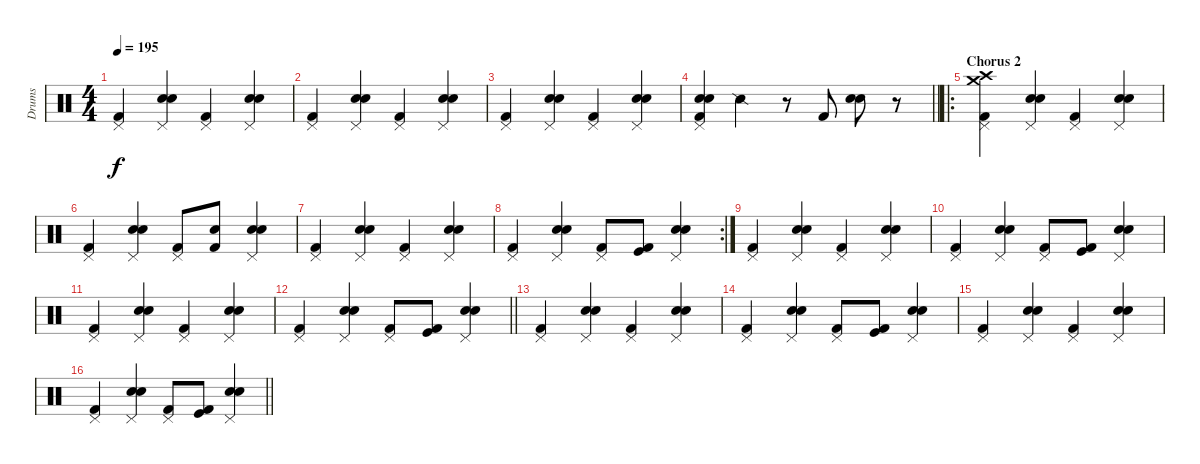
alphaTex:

\track ("Drums" "Drums") {instrument percussion}
\staff {score}
\articulation defaults
\ts (4 4)
\tempo 195
\clef neutral
\ks c
("Kick (hit) 2" "Pedal Hi-Hat (hit)").4{dy f} ("Snare (hit) 2" "Electric Snare (hit)" "Pedal Hi-Hat (hit)").4 ("Kick (hit) 2" "Pedal Hi-Hat (hit)").4 ("Snare (hit) 2" "Electric Snare (hit)" "Pedal Hi-Hat (hit)").4 |
("Kick (hit) 2" "Pedal Hi-Hat (hit)").4 ("Snare (hit) 2" "Electric Snare (hit)" "Pedal Hi-Hat (hit)").4 ("Kick (hit) 2" "Pedal Hi-Hat (hit)").4 ("Snare (hit) 2" "Electric Snare (hit)" "Pedal Hi-Hat (hit)").4 |
("Kick (hit) 2" "Pedal Hi-Hat (hit)").4 ("Snare (hit) 2" "Electric Snare (hit)" "Pedal Hi-Hat (hit)").4 ("Kick (hit) 2" "Pedal Hi-Hat (hit)").4 ("Snare (hit) 2" "Electric Snare (hit)" "Pedal Hi-Hat (hit)").4 |
\barLineRight lightlight
("Kick (hit) 2" "Electric Snare (hit)" "Snare (hit) 2" "Pedal Hi-Hat (hit)").4 "Snare (side stick) 2".4 r.8 "Kick (hit) 2".8 ("Snare (hit) 2" "Electric Snare (hit)").8 r.8 |
\ro
\section ("" "Chorus 2")
("Kick (hit) 2" "Pedal Hi-Hat (hit)" "Crash medium (hit)" "Crash high (hit)").4 ("Snare (hit) 2" "Electric Snare (hit)" "Pedal Hi-Hat (hit)").4 ("Kick (hit) 2" "Pedal Hi-Hat (hit)").4 ("Snare (hit) 2" "Electric Snare (hit)" "Pedal Hi-Hat (hit)").4 |
("Kick (hit) 2" "Pedal Hi-Hat (hit)").4 ("Snare (hit) 2" "Electric Snare (hit)" "Pedal Hi-Hat (hit)").4 ("Kick (hit) 2" "Pedal Hi-Hat (hit)").8 ("Kick (hit) 2" "Electric Snare (hit)").8 ("Snare (hit) 2" "Electric Snare (hit)" "Pedal Hi-Hat (hit)").4 |
("Kick (hit) 2" "Pedal Hi-Hat (hit)").4 ("Snare (hit) 2" "Electric Snare (hit)" "Pedal Hi-Hat (hit)").4 ("Kick (hit) 2" "Pedal Hi-Hat (hit)").4 ("Snare (hit) 2" "Electric Snare (hit)" "Pedal Hi-Hat (hit)").4 |
\rc 2
("Kick (hit) 2" "Pedal Hi-Hat (hit)").4 ("Snare (hit) 2" "Electric Snare (hit)" "Pedal Hi-Hat (hit)").4 ("Kick (hit) 2" "Pedal Hi-Hat (hit)").8 ("Kick (hit) 2" "Kick (hit)").8 ("Snare (hit) 2" "Electric Snare (hit)" "Pedal Hi-Hat (hit)").4 |
("Kick (hit) 2" "Pedal Hi-Hat (hit)").4 ("Snare (hit) 2" "Electric Snare (hit)" "Pedal Hi-Hat (hit)").4 ("Kick (hit) 2" "Pedal Hi-Hat (hit)").4 ("Snare (hit) 2" "Electric Snare (hit)" "Pedal Hi-Hat (hit)").4 |
("Kick (hit) 2" "Pedal Hi-Hat (hit)").4 ("Snare (hit) 2" "Electric Snare (hit)" "Pedal Hi-Hat (hit)").4 ("Kick (hit) 2" "Pedal Hi-Hat (hit)").8 ("Kick (hit) 2" "Kick (hit)").8 ("Snare (hit) 2" "Electric Snare (hit)" "Pedal Hi-Hat (hit)").4 |
("Kick (hit) 2" "Pedal Hi-Hat (hit)").4 ("Snare (hit) 2" "Electric Snare (hit)" "Pedal Hi-Hat (hit)").4 ("Kick (hit) 2" "Pedal Hi-Hat (hit)").4 ("Snare (hit) 2" "Electric Snare (hit)" "Pedal Hi-Hat (hit)").4 |
\barLineRight lightlight
("Kick (hit) 2" "Pedal Hi-Hat (hit)").4 ("Snare (hit) 2" "Electric Snare (hit)" "Pedal Hi-Hat (hit)").4 ("Kick (hit) 2" "Pedal Hi-Hat (hit)").8 ("Kick (hit) 2" "Kick (hit)").8 ("Snare (hit) 2" "Electric Snare (hit)" "Pedal Hi-Hat (hit)").4 |
("Kick (hit) 2" "Pedal Hi-Hat (hit)").4 ("Snare (hit) 2" "Electric Snare (hit)" "Pedal Hi-Hat (hit)").4 ("Kick (hit) 2" "Pedal Hi-Hat (hit)").4 ("Snare (hit) 2" "Electric Snare (hit)" "Pedal Hi-Hat (hit)").4 |
("Kick (hit) 2" "Pedal Hi-Hat (hit)").4 ("Snare (hit) 2" "Electric Snare (hit)" "Pedal Hi-Hat (hit)").4 ("Kick (hit) 2" "Pedal Hi-Hat (hit)").8 ("Kick (hit) 2" "Kick (hit)").8 ("Snare (hit) 2" "Electric Snare (hit)" "Pedal Hi-Hat (hit)").4 |
("Kick (hit) 2" "Pedal Hi-Hat (hit)").4 ("Snare (hit) 2" "Electric Snare (hit)" "Pedal Hi-Hat (hit)").4 ("Kick (hit) 2" "Pedal Hi-Hat (hit)").4 ("Snare (hit) 2" "Electric Snare (hit)" "Pedal Hi-Hat (hit)").4 |
\barLineRight lightlight
("Kick (hit) 2" "Pedal Hi-Hat (hit)").4 ("Snare (hit) 2" "Electric Snare (hit)" "Pedal Hi-Hat (hit)").4 ("Kick (hit) 2" "Pedal Hi-Hat (hit)").8 ("Kick (hit) 2" "Kick (hit)").8 ("Snare (hit) 2" "Electric Snare (hit)" "Pedal Hi-Hat (hit)").4
